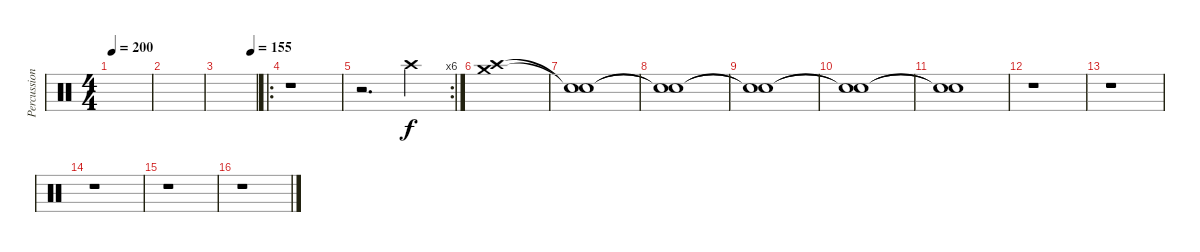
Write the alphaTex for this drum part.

\track ("Percussion" "Percussion") {instrument percussion}
\staff {score}
\articulation defaults
\ts (4 4)
\tempo 200
\clef neutral
\ks c
|
|
\tempo (155 0.875)
|
\ro
r.1 |
\rc 6
r.2{d} "Crash high (hit)".4 |
("Crash high (hit)" "Crash medium (hit)").1 |
("Snare (hit)"{t} "Snare (hit)"{t}).1 |
("Snare (hit)"{t} "Snare (hit)"{t}).1 |
("Snare (hit)"{t} "Snare (hit)"{t}).1 |
("Snare (hit)"{t} "Snare (hit)"{t}).1 |
("Snare (hit)"{t} "Snare (hit)"{t}).1 |
r.1 |
r.1 |
r.1 |
r.1 |
r.1
